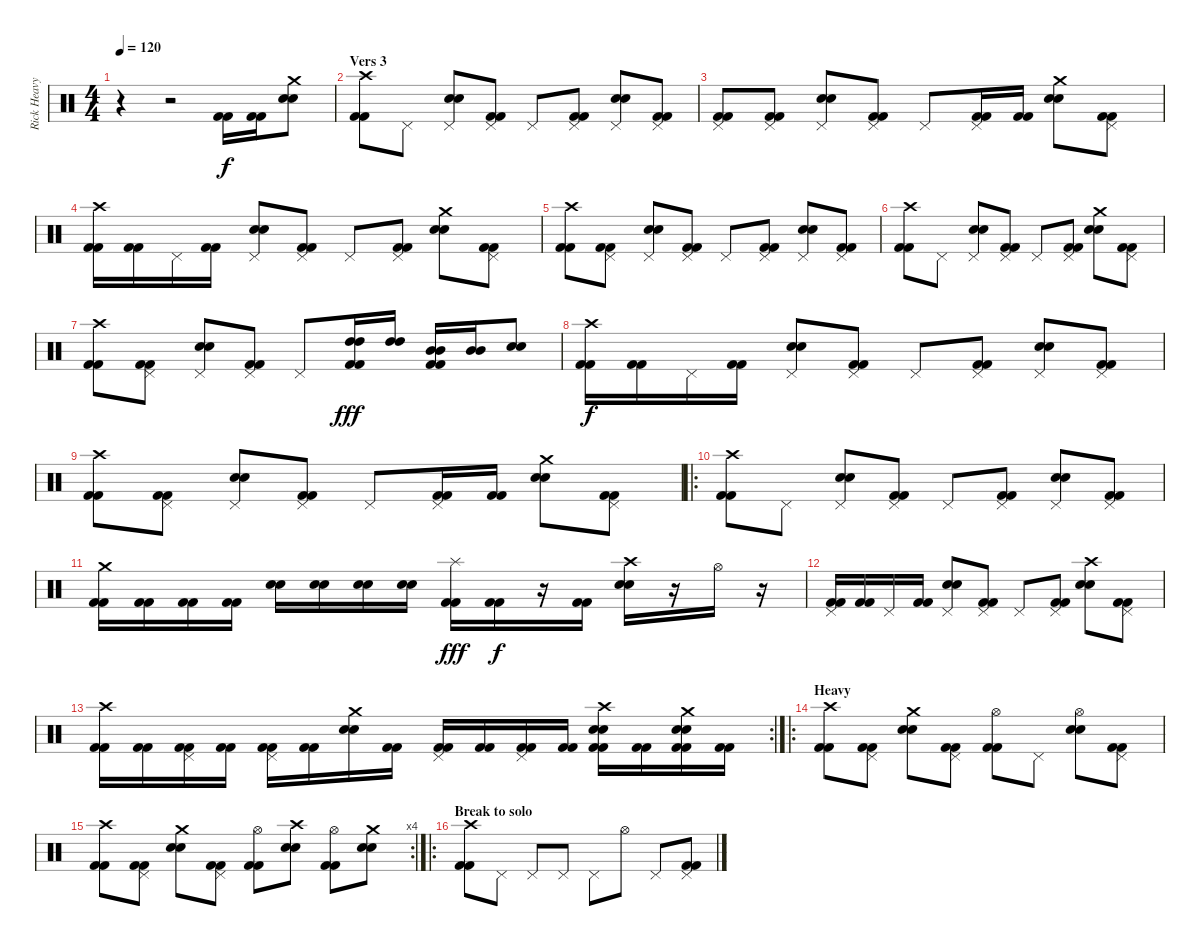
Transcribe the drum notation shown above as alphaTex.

\track ("Rick Heavy" "Rick Heavy") {instrument percussion}
\staff {score}
\articulation defaults
\ts (4 4)
\tempo 120
\clef neutral
\ks c
r.4{dy f} r.2 ("Kick (hit) 2" "Kick (hit) 2").16 ("Kick (hit) 2" "Kick (hit) 2").16 ("Crash medium (hit)" "Electric Snare (hit)" "Snare (hit) 2").8 |
\section ("" "Vers 3")
("Crash high (hit)" "Kick (hit) 2" "Kick (hit) 2").8 "Pedal Hi-Hat (hit)".8 ("Pedal Hi-Hat (hit)" "Electric Snare (hit)" "Snare (hit) 2").8 ("Pedal Hi-Hat (hit)" "Kick (hit) 2" "Kick (hit) 2").8 "Pedal Hi-Hat (hit)".8 ("Pedal Hi-Hat (hit)" "Kick (hit) 2" "Kick (hit) 2").8 ("Pedal Hi-Hat (hit)" "Electric Snare (hit)" "Snare (hit) 2").8 ("Pedal Hi-Hat (hit)" "Kick (hit) 2" "Kick (hit) 2").8 |
("Pedal Hi-Hat (hit)" "Kick (hit) 2" "Kick (hit) 2").8 ("Pedal Hi-Hat (hit)" "Kick (hit) 2" "Kick (hit) 2").8 ("Pedal Hi-Hat (hit)" "Electric Snare (hit)" "Snare (hit) 2").8 ("Pedal Hi-Hat (hit)" "Kick (hit) 2" "Kick (hit) 2").8 "Pedal Hi-Hat (hit)".8 ("Pedal Hi-Hat (hit)" "Kick (hit) 2" "Kick (hit) 2").16 ("Kick (hit) 2" "Kick (hit) 2").16 ("Crash medium (hit)" "Electric Snare (hit)" "Snare (hit) 2").8 ("Pedal Hi-Hat (hit)" "Kick (hit) 2" "Kick (hit) 2").8 |
("Crash high (hit)" "Kick (hit) 2" "Kick (hit) 2").16 ("Kick (hit) 2" "Kick (hit) 2").16 "Pedal Hi-Hat (hit)".16 ("Kick (hit) 2" "Kick (hit) 2").16 ("Pedal Hi-Hat (hit)" "Electric Snare (hit)" "Snare (hit) 2").8 ("Pedal Hi-Hat (hit)" "Kick (hit) 2" "Kick (hit) 2").8 "Pedal Hi-Hat (hit)".8 ("Pedal Hi-Hat (hit)" "Kick (hit) 2" "Kick (hit) 2").8 ("Crash medium (hit)" "Electric Snare (hit)" "Snare (hit) 2").8 ("Pedal Hi-Hat (hit)" "Kick (hit) 2" "Kick (hit) 2").8 |
("Crash high (hit)" "Kick (hit) 2" "Kick (hit) 2").8 ("Pedal Hi-Hat (hit)" "Kick (hit) 2" "Kick (hit) 2").8 ("Pedal Hi-Hat (hit)" "Electric Snare (hit)" "Snare (hit) 2").8 ("Pedal Hi-Hat (hit)" "Kick (hit) 2" "Kick (hit) 2").8 "Pedal Hi-Hat (hit)".8 ("Pedal Hi-Hat (hit)" "Kick (hit) 2" "Kick (hit) 2").8 ("Pedal Hi-Hat (hit)" "Electric Snare (hit)" "Snare (hit) 2").8 ("Pedal Hi-Hat (hit)" "Kick (hit) 2" "Kick (hit) 2").8 |
("Crash high (hit)" "Kick (hit) 2" "Kick (hit) 2").8 "Pedal Hi-Hat (hit)".8 ("Pedal Hi-Hat (hit)" "Electric Snare (hit)" "Snare (hit) 2").8 ("Pedal Hi-Hat (hit)" "Kick (hit) 2" "Kick (hit) 2").8 "Pedal Hi-Hat (hit)".8 ("Pedal Hi-Hat (hit)" "Kick (hit) 2" "Kick (hit) 2").8 ("Crash medium (hit)" "Electric Snare (hit)" "Snare (hit) 2").8 ("Pedal Hi-Hat (hit)" "Kick (hit) 2" "Kick (hit) 2").8 |
("Crash high (hit)" "Kick (hit) 2" "Kick (hit) 2").8 ("Pedal Hi-Hat (hit)" "Kick (hit) 2" "Kick (hit) 2").8 ("Pedal Hi-Hat (hit)" "Electric Snare (hit)" "Snare (hit) 2").8 ("Pedal Hi-Hat (hit)" "Kick (hit) 2" "Kick (hit) 2").8 "Pedal Hi-Hat (hit)".8 ("High Tom (hit)" "High Tom (hit)" "Kick (hit) 2" "Kick (hit) 2").16{dy fff} ("High Tom (hit)" "High Tom (hit)").16 ("Mid Tom (hit)" "Mid Tom (hit)" "Kick (hit) 2" "Kick (hit) 2").16 ("Mid Tom (hit)" "Mid Tom (hit)").16 ("Electric Snare (hit)" "Snare (hit) 2").8 |
("Crash high (hit)" "Kick (hit) 2" "Kick (hit) 2").16{dy f} ("Kick (hit) 2" "Kick (hit) 2").16 "Pedal Hi-Hat (hit)".16 ("Kick (hit) 2" "Kick (hit) 2").16 ("Pedal Hi-Hat (hit)" "Electric Snare (hit)" "Snare (hit) 2").8 ("Pedal Hi-Hat (hit)" "Kick (hit) 2" "Kick (hit) 2").8 "Pedal Hi-Hat (hit)".8 ("Pedal Hi-Hat (hit)" "Kick (hit) 2" "Kick (hit) 2").8 ("Pedal Hi-Hat (hit)" "Electric Snare (hit)" "Snare (hit) 2").8 ("Pedal Hi-Hat (hit)" "Kick (hit) 2" "Kick (hit) 2").8 |
("Crash high (hit)" "Kick (hit) 2" "Kick (hit) 2").8 ("Pedal Hi-Hat (hit)" "Kick (hit) 2" "Kick (hit) 2").8 ("Pedal Hi-Hat (hit)" "Electric Snare (hit)" "Snare (hit) 2").8 ("Pedal Hi-Hat (hit)" "Kick (hit) 2" "Kick (hit) 2").8 "Pedal Hi-Hat (hit)".8 ("Pedal Hi-Hat (hit)" "Kick (hit) 2" "Kick (hit) 2").16 ("Kick (hit) 2" "Kick (hit) 2").16 ("Crash medium (hit)" "Electric Snare (hit)" "Snare (hit) 2").8 ("Pedal Hi-Hat (hit)" "Kick (hit) 2" "Kick (hit) 2").8 |
\ro
("Crash high (hit)" "Kick (hit) 2" "Kick (hit) 2").8 "Pedal Hi-Hat (hit)".8 ("Pedal Hi-Hat (hit)" "Electric Snare (hit)" "Snare (hit) 2").8 ("Pedal Hi-Hat (hit)" "Kick (hit) 2" "Kick (hit) 2").8 "Pedal Hi-Hat (hit)".8 ("Pedal Hi-Hat (hit)" "Kick (hit) 2" "Kick (hit) 2").8 ("Pedal Hi-Hat (hit)" "Electric Snare (hit)" "Snare (hit) 2").8 ("Pedal Hi-Hat (hit)" "Kick (hit) 2" "Kick (hit) 2").8 |
("Crash medium (hit)" "Kick (hit) 2" "Kick (hit) 2").16 ("Kick (hit) 2" "Kick (hit) 2").16 ("Kick (hit) 2" "Kick (hit) 2").16 ("Kick (hit) 2" "Kick (hit) 2").16 ("Electric Snare (hit)" "Snare (hit) 2").16 ("Electric Snare (hit)" "Snare (hit) 2").16 ("Electric Snare (hit)" "Snare (hit) 2").16 ("Electric Snare (hit)" "Snare (hit) 2").16 ("Splash (hit)" "Kick (hit) 2" "Kick (hit) 2").16{dy fff} ("Kick (hit) 2" "Kick (hit) 2").16{dy f} r.16 ("Kick (hit) 2" "Kick (hit) 2").16 ("Crash high (hit)" "Electric Snare (hit)" "Snare (hit) 2").16 r.16 "Hi-Hat (open)".16 r.16 |
("Pedal Hi-Hat (hit)" "Kick (hit) 2" "Kick (hit) 2").16 ("Kick (hit) 2" "Kick (hit) 2").16 "Pedal Hi-Hat (hit)".16 ("Kick (hit) 2" "Kick (hit) 2").16 ("Pedal Hi-Hat (hit)" "Electric Snare (hit)" "Snare (hit) 2").8 ("Pedal Hi-Hat (hit)" "Kick (hit) 2" "Kick (hit) 2").8 "Pedal Hi-Hat (hit)".8 ("Pedal Hi-Hat (hit)" "Kick (hit) 2" "Kick (hit) 2").8 ("Crash high (hit)" "Electric Snare (hit)" "Snare (hit) 2").8 ("Pedal Hi-Hat (hit)" "Kick (hit) 2" "Kick (hit) 2").8 |
\rc 2
("Crash high (hit)" "Kick (hit) 2" "Kick (hit) 2").16 ("Kick (hit) 2" "Kick (hit) 2").16 ("Pedal Hi-Hat (hit)" "Kick (hit) 2" "Kick (hit) 2").16 ("Kick (hit) 2" "Kick (hit) 2").16 ("Pedal Hi-Hat (hit)" "Kick (hit) 2" "Kick (hit) 2").16 ("Kick (hit) 2" "Kick (hit) 2").16 ("Crash medium (hit)" "Electric Snare (hit)" "Snare (hit) 2").16 ("Kick (hit) 2" "Kick (hit) 2").16 ("Pedal Hi-Hat (hit)" "Kick (hit) 2" "Kick (hit) 2").16 ("Kick (hit) 2" "Kick (hit) 2").16 ("Pedal Hi-Hat (hit)" "Kick (hit) 2" "Kick (hit) 2").16 ("Kick (hit) 2" "Kick (hit) 2").16 ("Crash high (hit)" "Electric Snare (hit)" "Snare (hit) 2" "Kick (hit) 2" "Kick (hit) 2").16 ("Kick (hit) 2" "Kick (hit) 2").16 ("Crash medium (hit)" "Electric Snare (hit)" "Snare (hit) 2" "Kick (hit) 2" "Kick (hit) 2").16 ("Kick (hit) 2" "Kick (hit) 2").16 |
\ro
\section ("" "Heavy")
("Crash high (hit)" "Kick (hit) 2" "Kick (hit) 2").8 ("Pedal Hi-Hat (hit)" "Kick (hit) 2" "Kick (hit) 2").8 ("Crash medium (hit)" "Snare (hit) 2" "Electric Snare (hit)").8 ("Pedal Hi-Hat (hit)" "Kick (hit) 2" "Kick (hit) 2").8 ("Hi-Hat (open)" "Kick (hit) 2" "Kick (hit) 2").8 "Pedal Hi-Hat (hit)".8 ("Hi-Hat (open)" "Electric Snare (hit)" "Snare (hit) 2").8 ("Pedal Hi-Hat (hit)" "Kick (hit) 2" "Kick (hit) 2").8 |
\rc 4
("Crash high (hit)" "Kick (hit) 2" "Kick (hit) 2").8 ("Pedal Hi-Hat (hit)" "Kick (hit) 2" "Kick (hit) 2").8 ("Crash medium (hit)" "Snare (hit) 2" "Electric Snare (hit)").8 ("Pedal Hi-Hat (hit)" "Kick (hit) 2" "Kick (hit) 2").8 ("Hi-Hat (open)" "Kick (hit) 2" "Kick (hit) 2").8 ("Crash high (hit)" "Electric Snare (hit)" "Snare (hit) 2").8 ("Hi-Hat (open)" "Kick (hit) 2" "Kick (hit) 2").8 ("Crash medium (hit)" "Electric Snare (hit)" "Snare (hit) 2").8 |
\ro
\section ("" "Break to solo")
("Crash high (hit)" "Kick (hit) 2" "Kick (hit) 2").8 "Pedal Hi-Hat (hit)".8 "Pedal Hi-Hat (hit)".8 "Pedal Hi-Hat (hit)".8 "Pedal Hi-Hat (hit)".8 "Hi-Hat (open)".8 "Pedal Hi-Hat (hit)".8 ("Pedal Hi-Hat (hit)" "Kick (hit) 2" "Kick (hit) 2").8
